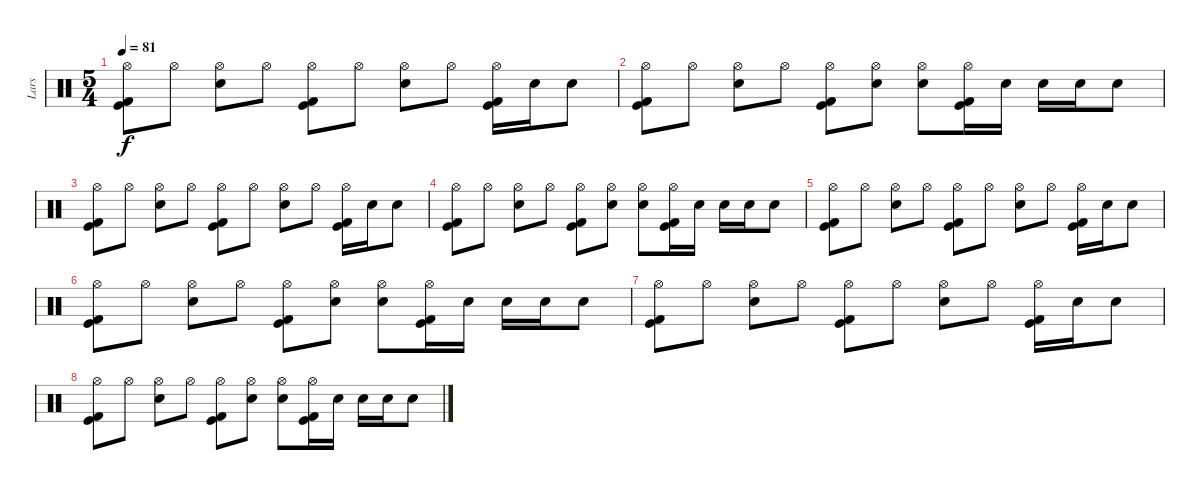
\track ("Lars" "Lars") {instrument percussion}
\staff {score}
\articulation defaults
\ts (5 4)
\tempo 81
\clef neutral
\ks c
("Hi-Hat (open)" "Kick (hit)" "Kick (hit) 2").8{dy f} "Hi-Hat (open)".8 ("Hi-Hat (open)" "Electric Snare (hit)").8 "Hi-Hat (open)".8 ("Hi-Hat (open)" "Kick (hit)" "Kick (hit) 2").8 "Hi-Hat (open)".8 ("Hi-Hat (open)" "Electric Snare (hit)").8 "Hi-Hat (open)".8 ("Hi-Hat (open)" "Kick (hit)" "Kick (hit) 2").16 "Electric Snare (hit)".16 "Electric Snare (hit)".8 |
("Hi-Hat (open)" "Kick (hit)" "Kick (hit) 2").8 "Hi-Hat (open)".8 ("Hi-Hat (open)" "Electric Snare (hit)").8 "Hi-Hat (open)".8 ("Hi-Hat (open)" "Kick (hit)" "Kick (hit) 2").8 ("Hi-Hat (open)" "Electric Snare (hit)").8 ("Hi-Hat (open)" "Electric Snare (hit)").8 ("Hi-Hat (open)" "Kick (hit)" "Kick (hit) 2").16 "Electric Snare (hit)".16 "Electric Snare (hit)".16 "Electric Snare (hit)".16 "Electric Snare (hit)".8 |
("Hi-Hat (open)" "Kick (hit)" "Kick (hit) 2").8 "Hi-Hat (open)".8 ("Hi-Hat (open)" "Electric Snare (hit)").8 "Hi-Hat (open)".8 ("Hi-Hat (open)" "Kick (hit)" "Kick (hit) 2").8 "Hi-Hat (open)".8 ("Hi-Hat (open)" "Electric Snare (hit)").8 "Hi-Hat (open)".8 ("Hi-Hat (open)" "Kick (hit)" "Kick (hit) 2").16 "Electric Snare (hit)".16 "Electric Snare (hit)".8 |
("Hi-Hat (open)" "Kick (hit)" "Kick (hit) 2").8 "Hi-Hat (open)".8 ("Hi-Hat (open)" "Electric Snare (hit)").8 "Hi-Hat (open)".8 ("Hi-Hat (open)" "Kick (hit)" "Kick (hit) 2").8 ("Hi-Hat (open)" "Electric Snare (hit)").8 ("Hi-Hat (open)" "Electric Snare (hit)").8 ("Hi-Hat (open)" "Kick (hit)" "Kick (hit) 2").16 "Electric Snare (hit)".16 "Electric Snare (hit)".16 "Electric Snare (hit)".16 "Electric Snare (hit)".8 |
("Hi-Hat (open)" "Kick (hit)" "Kick (hit) 2").8{volume 0} "Hi-Hat (open)".8 ("Hi-Hat (open)" "Electric Snare (hit)").8 "Hi-Hat (open)".8 ("Hi-Hat (open)" "Kick (hit)" "Kick (hit) 2").8 "Hi-Hat (open)".8 ("Hi-Hat (open)" "Electric Snare (hit)").8 "Hi-Hat (open)".8 ("Hi-Hat (open)" "Kick (hit)" "Kick (hit) 2").16 "Electric Snare (hit)".16 "Electric Snare (hit)".8 |
("Hi-Hat (open)" "Kick (hit)" "Kick (hit) 2").8 "Hi-Hat (open)".8 ("Hi-Hat (open)" "Electric Snare (hit)").8 "Hi-Hat (open)".8 ("Hi-Hat (open)" "Kick (hit)" "Kick (hit) 2").8 ("Hi-Hat (open)" "Electric Snare (hit)").8 ("Hi-Hat (open)" "Electric Snare (hit)").8 ("Hi-Hat (open)" "Kick (hit)" "Kick (hit) 2").16 "Electric Snare (hit)".16 "Electric Snare (hit)".16 "Electric Snare (hit)".16 "Electric Snare (hit)".8 |
("Hi-Hat (open)" "Kick (hit)" "Kick (hit) 2").8 "Hi-Hat (open)".8 ("Hi-Hat (open)" "Electric Snare (hit)").8 "Hi-Hat (open)".8 ("Hi-Hat (open)" "Kick (hit)" "Kick (hit) 2").8 "Hi-Hat (open)".8 ("Hi-Hat (open)" "Electric Snare (hit)").8 "Hi-Hat (open)".8 ("Hi-Hat (open)" "Kick (hit)" "Kick (hit) 2").16 "Electric Snare (hit)".16 "Electric Snare (hit)".8 |
("Hi-Hat (open)" "Kick (hit)" "Kick (hit) 2").8 "Hi-Hat (open)".8 ("Hi-Hat (open)" "Electric Snare (hit)").8 "Hi-Hat (open)".8 ("Hi-Hat (open)" "Kick (hit)" "Kick (hit) 2").8 ("Hi-Hat (open)" "Electric Snare (hit)").8 ("Hi-Hat (open)" "Electric Snare (hit)").8 ("Hi-Hat (open)" "Kick (hit)" "Kick (hit) 2").16 "Electric Snare (hit)".16 "Electric Snare (hit)".16 "Electric Snare (hit)".16 "Electric Snare (hit)".8
